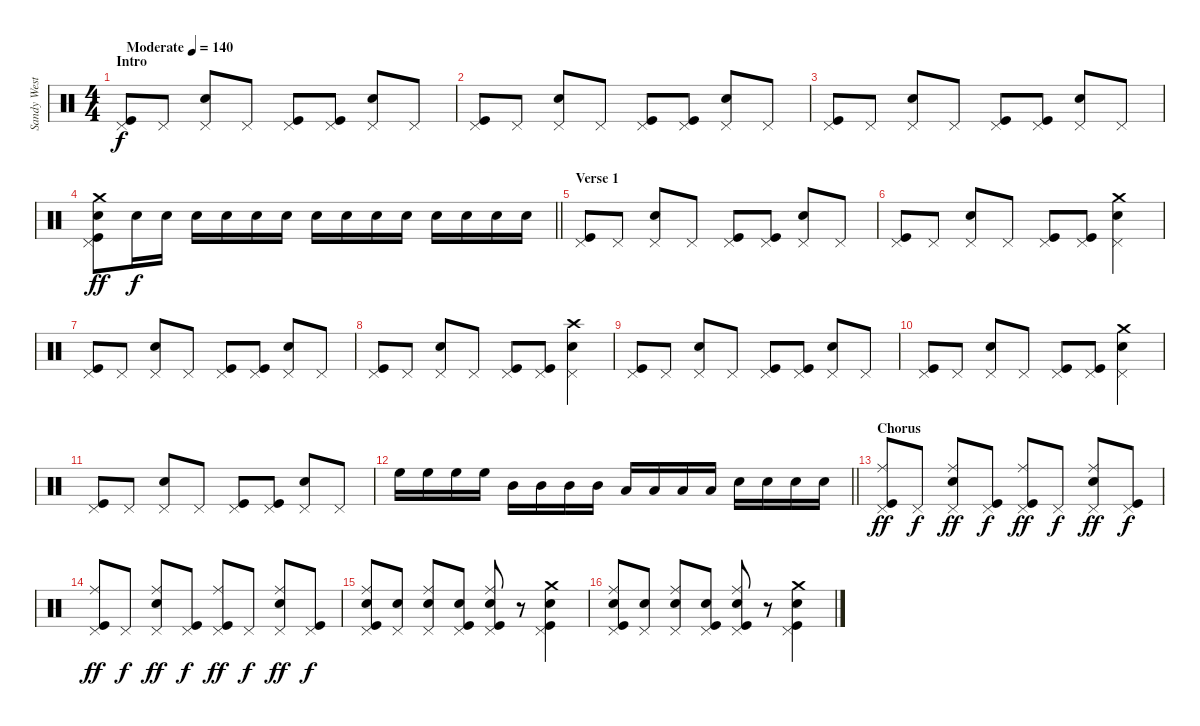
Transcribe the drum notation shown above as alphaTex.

\track ("Sandy West" "Sandy West") {instrument percussion}
\staff {score}
\articulation defaults
\ts (4 4)
\section ("" "Intro")
\tempo (140 "Moderate")
\clef neutral
\ks c
("Pedal Hi-Hat (hit)" "Kick (hit)").8{dy f} "Pedal Hi-Hat (hit)".8 ("Snare (hit) 2" "Pedal Hi-Hat (hit)").8 "Pedal Hi-Hat (hit)".8 ("Pedal Hi-Hat (hit)" "Kick (hit)").8 ("Pedal Hi-Hat (hit)" "Kick (hit)").8 ("Snare (hit) 2" "Pedal Hi-Hat (hit)").8 "Pedal Hi-Hat (hit)".8 |
("Pedal Hi-Hat (hit)" "Kick (hit)").8 "Pedal Hi-Hat (hit)".8 ("Snare (hit) 2" "Pedal Hi-Hat (hit)").8 "Pedal Hi-Hat (hit)".8 ("Pedal Hi-Hat (hit)" "Kick (hit)").8 ("Pedal Hi-Hat (hit)" "Kick (hit)").8 ("Snare (hit) 2" "Pedal Hi-Hat (hit)").8 "Pedal Hi-Hat (hit)".8 |
("Pedal Hi-Hat (hit)" "Kick (hit)").8 "Pedal Hi-Hat (hit)".8 ("Snare (hit) 2" "Pedal Hi-Hat (hit)").8 "Pedal Hi-Hat (hit)".8 ("Pedal Hi-Hat (hit)" "Kick (hit)").8 ("Pedal Hi-Hat (hit)" "Kick (hit)").8 ("Snare (hit) 2" "Pedal Hi-Hat (hit)").8 "Pedal Hi-Hat (hit)".8 |
\barLineRight lightlight
("Crash medium (hit)" "Snare (hit) 2" "Pedal Hi-Hat (hit)" "Kick (hit)").8{dy ff} "Snare (hit) 2".16{dy f} "Snare (hit) 2".16 "Snare (hit) 2".16 "Snare (hit) 2".16 "Snare (hit) 2".16 "Snare (hit) 2".16 "Snare (hit) 2".16 "Snare (hit) 2".16 "Snare (hit) 2".16 "Snare (hit) 2".16 "Snare (hit) 2".16 "Snare (hit) 2".16 "Snare (hit) 2".16 "Snare (hit) 2".16 |
\section ("" "Verse 1")
("Pedal Hi-Hat (hit)" "Kick (hit)").8 "Pedal Hi-Hat (hit)".8 ("Snare (hit) 2" "Pedal Hi-Hat (hit)").8 "Pedal Hi-Hat (hit)".8 ("Pedal Hi-Hat (hit)" "Kick (hit)").8 ("Pedal Hi-Hat (hit)" "Kick (hit)").8 ("Snare (hit) 2" "Pedal Hi-Hat (hit)").8 "Pedal Hi-Hat (hit)".8 |
("Pedal Hi-Hat (hit)" "Kick (hit)").8 "Pedal Hi-Hat (hit)".8 ("Snare (hit) 2" "Pedal Hi-Hat (hit)").8 "Pedal Hi-Hat (hit)".8 ("Pedal Hi-Hat (hit)" "Kick (hit)").8 ("Pedal Hi-Hat (hit)" "Kick (hit)").8 ("Crash medium (hit)" "Snare (hit) 2" "Pedal Hi-Hat (hit)").4 |
("Pedal Hi-Hat (hit)" "Kick (hit)").8 "Pedal Hi-Hat (hit)".8 ("Snare (hit) 2" "Pedal Hi-Hat (hit)").8 "Pedal Hi-Hat (hit)".8 ("Pedal Hi-Hat (hit)" "Kick (hit)").8 ("Pedal Hi-Hat (hit)" "Kick (hit)").8 ("Snare (hit) 2" "Pedal Hi-Hat (hit)").8 "Pedal Hi-Hat (hit)".8 |
("Pedal Hi-Hat (hit)" "Kick (hit)").8 "Pedal Hi-Hat (hit)".8 ("Snare (hit) 2" "Pedal Hi-Hat (hit)").8 "Pedal Hi-Hat (hit)".8 ("Pedal Hi-Hat (hit)" "Kick (hit)").8 ("Pedal Hi-Hat (hit)" "Kick (hit)").8 ("Crash high (hit)" "Snare (hit) 2" "Pedal Hi-Hat (hit)").4 |
("Pedal Hi-Hat (hit)" "Kick (hit)").8 "Pedal Hi-Hat (hit)".8 ("Snare (hit) 2" "Pedal Hi-Hat (hit)").8 "Pedal Hi-Hat (hit)".8 ("Pedal Hi-Hat (hit)" "Kick (hit)").8 ("Pedal Hi-Hat (hit)" "Kick (hit)").8 ("Snare (hit) 2" "Pedal Hi-Hat (hit)").8 "Pedal Hi-Hat (hit)".8 |
("Pedal Hi-Hat (hit)" "Kick (hit)").8 "Pedal Hi-Hat (hit)".8 ("Snare (hit) 2" "Pedal Hi-Hat (hit)").8 "Pedal Hi-Hat (hit)".8 ("Pedal Hi-Hat (hit)" "Kick (hit)").8 ("Pedal Hi-Hat (hit)" "Kick (hit)").8 ("Crash medium (hit)" "Snare (hit) 2" "Pedal Hi-Hat (hit)").4 |
("Pedal Hi-Hat (hit)" "Kick (hit)").8 "Pedal Hi-Hat (hit)".8 ("Snare (hit) 2" "Pedal Hi-Hat (hit)").8 "Pedal Hi-Hat (hit)".8 ("Pedal Hi-Hat (hit)" "Kick (hit)").8 ("Pedal Hi-Hat (hit)" "Kick (hit)").8 ("Snare (hit) 2" "Pedal Hi-Hat (hit)").8 "Pedal Hi-Hat (hit)".8 |
\barLineRight lightlight "High Floor Tom (hit)".16 "High Floor Tom (hit)".16 "High Floor Tom (hit)".16 "High Floor Tom (hit)".16 "Mid Tom (hit)".16 "Mid Tom (hit)".16 "Mid Tom (hit)".16 "Mid Tom (hit)".16 "Low Tom (hit)".16 "Low Tom (hit)".16 "Low Tom (hit)".16 "Low Tom (hit)".16 "Snare (hit) 2".16 "Snare (hit) 2".16 "Snare (hit) 2".16 "Snare (hit) 2".16
|
\section ("" "Chorus")
("Ride (middle)" "Pedal Hi-Hat (hit)" "Kick (hit)").8{dy ff} "Pedal Hi-Hat (hit)".8{dy f} ("Ride (middle)" "Snare (hit) 2" "Pedal Hi-Hat (hit)").8{dy ff} ("Pedal Hi-Hat (hit)" "Kick (hit)").8{dy f} ("Ride (middle)" "Pedal Hi-Hat (hit)" "Kick (hit)").8{dy ff} "Pedal Hi-Hat (hit)".8{dy f} ("Ride (middle)" "Snare (hit) 2" "Pedal Hi-Hat (hit)").8{dy ff} ("Pedal Hi-Hat (hit)" "Kick (hit)").8{dy f} |
("Ride (middle)" "Pedal Hi-Hat (hit)" "Kick (hit)").8{dy ff} "Pedal Hi-Hat (hit)".8{dy f} ("Ride (middle)" "Snare (hit) 2" "Pedal Hi-Hat (hit)").8{dy ff} ("Pedal Hi-Hat (hit)" "Kick (hit)").8{dy f} ("Ride (middle)" "Pedal Hi-Hat (hit)" "Kick (hit)").8{dy ff} "Pedal Hi-Hat (hit)".8{dy f} ("Ride (middle)" "Snare (hit) 2" "Pedal Hi-Hat (hit)").8{dy ff} ("Pedal Hi-Hat (hit)" "Kick (hit)").8{dy f} |
("Ride (middle)" "Pedal Hi-Hat (hit)" "Snare (hit) 2" "Kick (hit)").8 ("Pedal Hi-Hat (hit)" "Snare (hit) 2").8 ("Ride (middle)" "Pedal Hi-Hat (hit)" "Snare (hit) 2").8 ("Pedal Hi-Hat (hit)" "Snare (hit) 2" "Kick (hit)").8 ("Ride (middle)" "Pedal Hi-Hat (hit)" "Snare (hit) 2" "Kick (hit)").8 r.8 ("Crash medium (hit)" "Pedal Hi-Hat (hit)" "Snare (hit) 2" "Kick (hit)").4 |
("Ride (middle)" "Pedal Hi-Hat (hit)" "Snare (hit) 2" "Kick (hit)").8 ("Pedal Hi-Hat (hit)" "Snare (hit) 2").8 ("Ride (middle)" "Pedal Hi-Hat (hit)" "Snare (hit) 2").8 ("Pedal Hi-Hat (hit)" "Snare (hit) 2" "Kick (hit)").8 ("Ride (middle)" "Pedal Hi-Hat (hit)" "Snare (hit) 2" "Kick (hit)").8 r.8 ("Crash medium (hit)" "Pedal Hi-Hat (hit)" "Snare (hit) 2" "Kick (hit)").4
